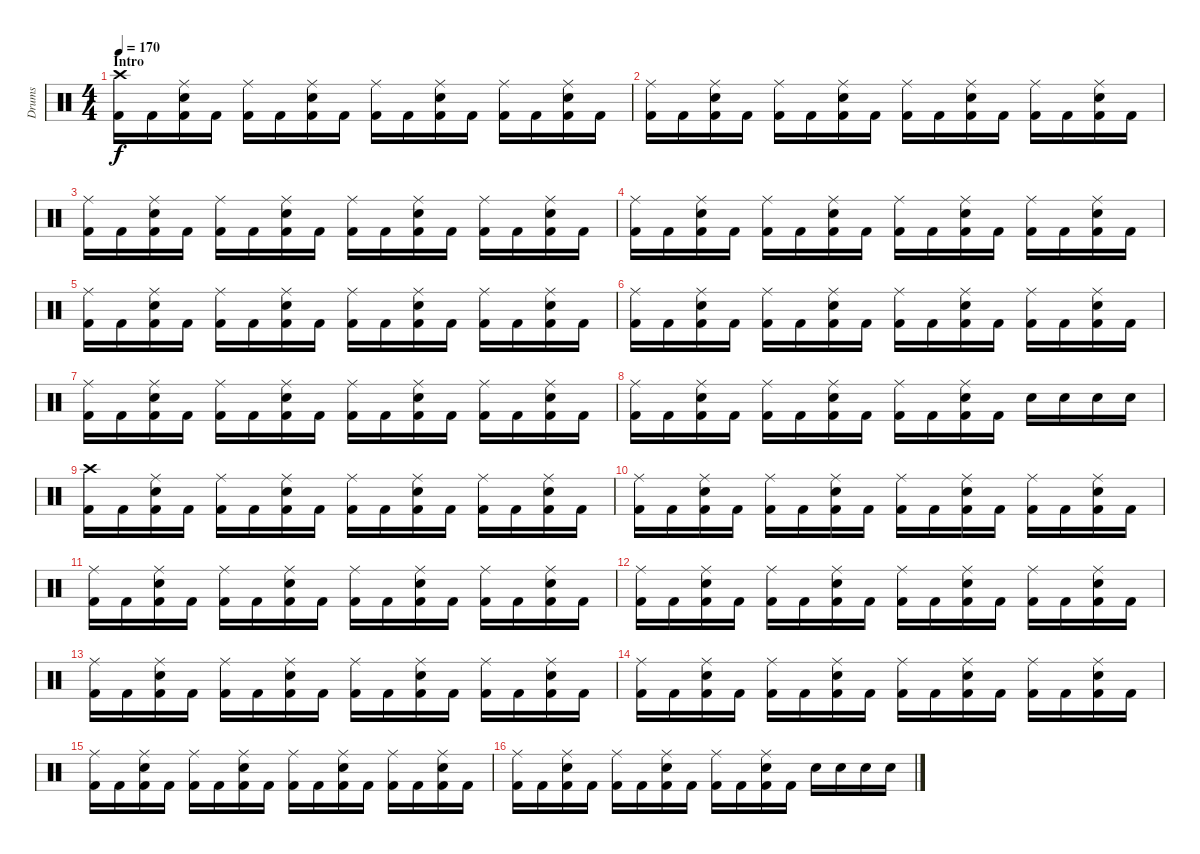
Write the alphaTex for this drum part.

\track ("Drums" "Drums") {instrument percussion}
\staff {score}
\articulation defaults
\ts (4 4)
\section ("" "Intro")
\tempo 170
\clef neutral
\ks c
("Crash high (hit)" "Kick (hit) 2").16{dy f} "Kick (hit) 2".16 ("Ride (middle)" "Electric Snare (hit)" "Kick (hit) 2").16 "Kick (hit) 2".16 ("Ride (middle)" "Kick (hit) 2").16 "Kick (hit) 2".16 ("Ride (middle)" "Electric Snare (hit)" "Kick (hit) 2").16 "Kick (hit) 2".16 ("Ride (middle)" "Kick (hit) 2").16 "Kick (hit) 2".16 ("Ride (middle)" "Electric Snare (hit)" "Kick (hit) 2").16 "Kick (hit) 2".16 ("Ride (middle)" "Kick (hit) 2").16 "Kick (hit) 2".16 ("Ride (middle)" "Electric Snare (hit)" "Kick (hit) 2").16 "Kick (hit) 2".16 |
("Ride (middle)" "Kick (hit) 2").16 "Kick (hit) 2".16 ("Ride (middle)" "Electric Snare (hit)" "Kick (hit) 2").16 "Kick (hit) 2".16 ("Ride (middle)" "Kick (hit) 2").16 "Kick (hit) 2".16 ("Ride (middle)" "Electric Snare (hit)" "Kick (hit) 2").16 "Kick (hit) 2".16 ("Ride (middle)" "Kick (hit) 2").16 "Kick (hit) 2".16 ("Ride (middle)" "Electric Snare (hit)" "Kick (hit) 2").16 "Kick (hit) 2".16 ("Ride (middle)" "Kick (hit) 2").16 "Kick (hit) 2".16 ("Ride (middle)" "Electric Snare (hit)" "Kick (hit) 2").16 "Kick (hit) 2".16 |
("Ride (middle)" "Kick (hit) 2").16 "Kick (hit) 2".16 ("Ride (middle)" "Electric Snare (hit)" "Kick (hit) 2").16 "Kick (hit) 2".16 ("Ride (middle)" "Kick (hit) 2").16 "Kick (hit) 2".16 ("Ride (middle)" "Electric Snare (hit)" "Kick (hit) 2").16 "Kick (hit) 2".16 ("Ride (middle)" "Kick (hit) 2").16 "Kick (hit) 2".16 ("Ride (middle)" "Electric Snare (hit)" "Kick (hit) 2").16 "Kick (hit) 2".16 ("Ride (middle)" "Kick (hit) 2").16 "Kick (hit) 2".16 ("Ride (middle)" "Electric Snare (hit)" "Kick (hit) 2").16 "Kick (hit) 2".16 |
("Ride (middle)" "Kick (hit) 2").16 "Kick (hit) 2".16 ("Ride (middle)" "Electric Snare (hit)" "Kick (hit) 2").16 "Kick (hit) 2".16 ("Ride (middle)" "Kick (hit) 2").16 "Kick (hit) 2".16 ("Ride (middle)" "Electric Snare (hit)" "Kick (hit) 2").16 "Kick (hit) 2".16 ("Ride (middle)" "Kick (hit) 2").16 "Kick (hit) 2".16 ("Ride (middle)" "Electric Snare (hit)" "Kick (hit) 2").16 "Kick (hit) 2".16 ("Ride (middle)" "Kick (hit) 2").16 "Kick (hit) 2".16 ("Ride (middle)" "Electric Snare (hit)" "Kick (hit) 2").16 "Kick (hit) 2".16 |
("Ride (middle)" "Kick (hit) 2").16 "Kick (hit) 2".16 ("Ride (middle)" "Electric Snare (hit)" "Kick (hit) 2").16 "Kick (hit) 2".16 ("Ride (middle)" "Kick (hit) 2").16 "Kick (hit) 2".16 ("Ride (middle)" "Electric Snare (hit)" "Kick (hit) 2").16 "Kick (hit) 2".16 ("Ride (middle)" "Kick (hit) 2").16 "Kick (hit) 2".16 ("Ride (middle)" "Electric Snare (hit)" "Kick (hit) 2").16 "Kick (hit) 2".16 ("Ride (middle)" "Kick (hit) 2").16 "Kick (hit) 2".16 ("Ride (middle)" "Electric Snare (hit)" "Kick (hit) 2").16 "Kick (hit) 2".16 |
("Ride (middle)" "Kick (hit) 2").16 "Kick (hit) 2".16 ("Ride (middle)" "Electric Snare (hit)" "Kick (hit) 2").16 "Kick (hit) 2".16 ("Ride (middle)" "Kick (hit) 2").16 "Kick (hit) 2".16 ("Ride (middle)" "Electric Snare (hit)" "Kick (hit) 2").16 "Kick (hit) 2".16 ("Ride (middle)" "Kick (hit) 2").16 "Kick (hit) 2".16 ("Ride (middle)" "Electric Snare (hit)" "Kick (hit) 2").16 "Kick (hit) 2".16 ("Ride (middle)" "Kick (hit) 2").16 "Kick (hit) 2".16 ("Ride (middle)" "Electric Snare (hit)" "Kick (hit) 2").16 "Kick (hit) 2".16 |
("Ride (middle)" "Kick (hit) 2").16 "Kick (hit) 2".16 ("Ride (middle)" "Electric Snare (hit)" "Kick (hit) 2").16 "Kick (hit) 2".16 ("Ride (middle)" "Kick (hit) 2").16 "Kick (hit) 2".16 ("Ride (middle)" "Electric Snare (hit)" "Kick (hit) 2").16 "Kick (hit) 2".16 ("Ride (middle)" "Kick (hit) 2").16 "Kick (hit) 2".16 ("Ride (middle)" "Electric Snare (hit)" "Kick (hit) 2").16 "Kick (hit) 2".16 ("Ride (middle)" "Kick (hit) 2").16 "Kick (hit) 2".16 ("Ride (middle)" "Electric Snare (hit)" "Kick (hit) 2").16 "Kick (hit) 2".16 |
("Ride (middle)" "Kick (hit) 2").16 "Kick (hit) 2".16 ("Ride (middle)" "Electric Snare (hit)" "Kick (hit) 2").16 "Kick (hit) 2".16 ("Ride (middle)" "Kick (hit) 2").16 "Kick (hit) 2".16 ("Ride (middle)" "Electric Snare (hit)" "Kick (hit) 2").16 "Kick (hit) 2".16 ("Ride (middle)" "Kick (hit) 2").16 "Kick (hit) 2".16 ("Ride (middle)" "Electric Snare (hit)" "Kick (hit) 2").16 "Kick (hit) 2".16 "Electric Snare (hit)".16 "Electric Snare (hit)".16 "Electric Snare (hit)".16 "Electric Snare (hit)".16 |
("Crash high (hit)" "Kick (hit) 2").16 "Kick (hit) 2".16 ("Ride (middle)" "Electric Snare (hit)" "Kick (hit) 2").16 "Kick (hit) 2".16 ("Ride (middle)" "Kick (hit) 2").16 "Kick (hit) 2".16 ("Ride (middle)" "Electric Snare (hit)" "Kick (hit) 2").16 "Kick (hit) 2".16 ("Ride (middle)" "Kick (hit) 2").16 "Kick (hit) 2".16 ("Ride (middle)" "Electric Snare (hit)" "Kick (hit) 2").16 "Kick (hit) 2".16 ("Ride (middle)" "Kick (hit) 2").16 "Kick (hit) 2".16 ("Ride (middle)" "Electric Snare (hit)" "Kick (hit) 2").16 "Kick (hit) 2".16 |
("Ride (middle)" "Kick (hit) 2").16 "Kick (hit) 2".16 ("Ride (middle)" "Electric Snare (hit)" "Kick (hit) 2").16 "Kick (hit) 2".16 ("Ride (middle)" "Kick (hit) 2").16 "Kick (hit) 2".16 ("Ride (middle)" "Electric Snare (hit)" "Kick (hit) 2").16 "Kick (hit) 2".16 ("Ride (middle)" "Kick (hit) 2").16 "Kick (hit) 2".16 ("Ride (middle)" "Electric Snare (hit)" "Kick (hit) 2").16 "Kick (hit) 2".16 ("Ride (middle)" "Kick (hit) 2").16 "Kick (hit) 2".16 ("Ride (middle)" "Electric Snare (hit)" "Kick (hit) 2").16 "Kick (hit) 2".16 |
("Ride (middle)" "Kick (hit) 2").16 "Kick (hit) 2".16 ("Ride (middle)" "Electric Snare (hit)" "Kick (hit) 2").16 "Kick (hit) 2".16 ("Ride (middle)" "Kick (hit) 2").16 "Kick (hit) 2".16 ("Ride (middle)" "Electric Snare (hit)" "Kick (hit) 2").16 "Kick (hit) 2".16 ("Ride (middle)" "Kick (hit) 2").16 "Kick (hit) 2".16 ("Ride (middle)" "Electric Snare (hit)" "Kick (hit) 2").16 "Kick (hit) 2".16 ("Ride (middle)" "Kick (hit) 2").16 "Kick (hit) 2".16 ("Ride (middle)" "Electric Snare (hit)" "Kick (hit) 2").16 "Kick (hit) 2".16 |
("Ride (middle)" "Kick (hit) 2").16 "Kick (hit) 2".16 ("Ride (middle)" "Electric Snare (hit)" "Kick (hit) 2").16 "Kick (hit) 2".16 ("Ride (middle)" "Kick (hit) 2").16 "Kick (hit) 2".16 ("Ride (middle)" "Electric Snare (hit)" "Kick (hit) 2").16 "Kick (hit) 2".16 ("Ride (middle)" "Kick (hit) 2").16 "Kick (hit) 2".16 ("Ride (middle)" "Electric Snare (hit)" "Kick (hit) 2").16 "Kick (hit) 2".16 ("Ride (middle)" "Kick (hit) 2").16 "Kick (hit) 2".16 ("Ride (middle)" "Electric Snare (hit)" "Kick (hit) 2").16 "Kick (hit) 2".16 |
("Ride (middle)" "Kick (hit) 2").16 "Kick (hit) 2".16 ("Ride (middle)" "Electric Snare (hit)" "Kick (hit) 2").16 "Kick (hit) 2".16 ("Ride (middle)" "Kick (hit) 2").16 "Kick (hit) 2".16 ("Ride (middle)" "Electric Snare (hit)" "Kick (hit) 2").16 "Kick (hit) 2".16 ("Ride (middle)" "Kick (hit) 2").16 "Kick (hit) 2".16 ("Ride (middle)" "Electric Snare (hit)" "Kick (hit) 2").16 "Kick (hit) 2".16 ("Ride (middle)" "Kick (hit) 2").16 "Kick (hit) 2".16 ("Ride (middle)" "Electric Snare (hit)" "Kick (hit) 2").16 "Kick (hit) 2".16 |
("Ride (middle)" "Kick (hit) 2").16 "Kick (hit) 2".16 ("Ride (middle)" "Electric Snare (hit)" "Kick (hit) 2").16 "Kick (hit) 2".16 ("Ride (middle)" "Kick (hit) 2").16 "Kick (hit) 2".16 ("Ride (middle)" "Electric Snare (hit)" "Kick (hit) 2").16 "Kick (hit) 2".16 ("Ride (middle)" "Kick (hit) 2").16 "Kick (hit) 2".16 ("Ride (middle)" "Electric Snare (hit)" "Kick (hit) 2").16 "Kick (hit) 2".16 ("Ride (middle)" "Kick (hit) 2").16 "Kick (hit) 2".16 ("Ride (middle)" "Electric Snare (hit)" "Kick (hit) 2").16 "Kick (hit) 2".16 |
("Ride (middle)" "Kick (hit) 2").16 "Kick (hit) 2".16 ("Ride (middle)" "Electric Snare (hit)" "Kick (hit) 2").16 "Kick (hit) 2".16 ("Ride (middle)" "Kick (hit) 2").16 "Kick (hit) 2".16 ("Ride (middle)" "Electric Snare (hit)" "Kick (hit) 2").16 "Kick (hit) 2".16 ("Ride (middle)" "Kick (hit) 2").16 "Kick (hit) 2".16 ("Ride (middle)" "Electric Snare (hit)" "Kick (hit) 2").16 "Kick (hit) 2".16 ("Ride (middle)" "Kick (hit) 2").16 "Kick (hit) 2".16 ("Ride (middle)" "Electric Snare (hit)" "Kick (hit) 2").16 "Kick (hit) 2".16 |
("Ride (middle)" "Kick (hit) 2").16 "Kick (hit) 2".16 ("Ride (middle)" "Electric Snare (hit)" "Kick (hit) 2").16 "Kick (hit) 2".16 ("Ride (middle)" "Kick (hit) 2").16 "Kick (hit) 2".16 ("Ride (middle)" "Electric Snare (hit)" "Kick (hit) 2").16 "Kick (hit) 2".16 ("Ride (middle)" "Kick (hit) 2").16 "Kick (hit) 2".16 ("Ride (middle)" "Electric Snare (hit)" "Kick (hit) 2").16 "Kick (hit) 2".16 "Electric Snare (hit)".16 "Electric Snare (hit)".16 "Electric Snare (hit)".16 "Electric Snare (hit)".16
